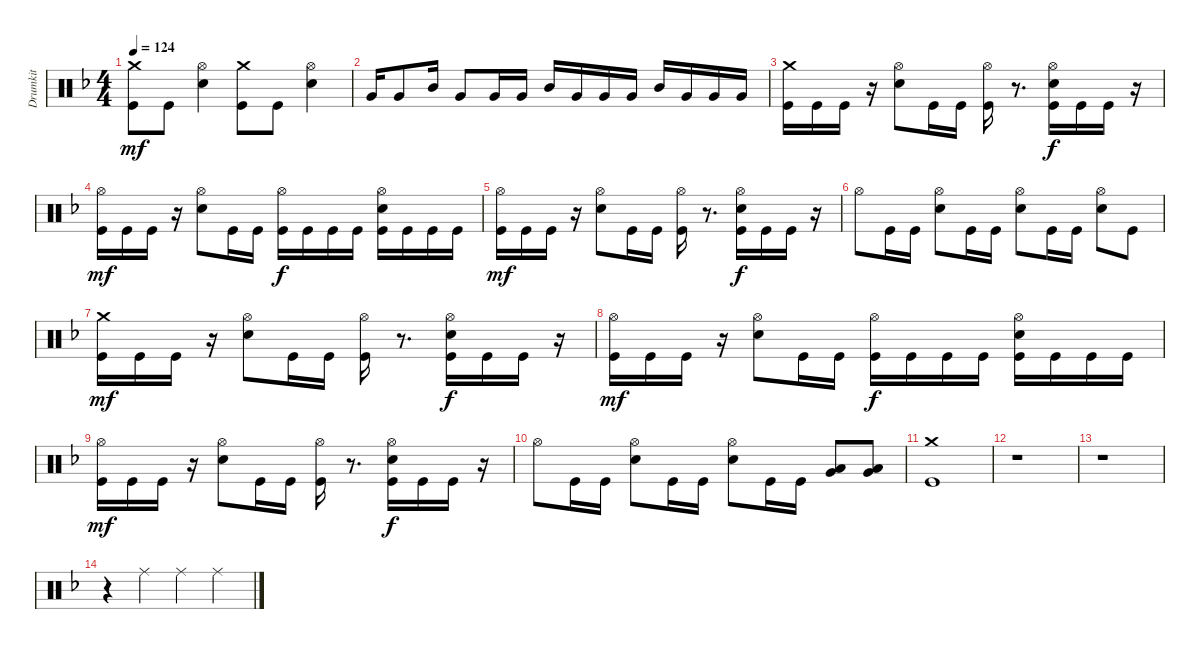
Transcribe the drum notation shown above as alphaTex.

\track ("Drumkit" "Drumkit") {instrument percussion}
\staff {score}
\articulation defaults
\ts (4 4)
\tempo 124
\clef neutral
\ks dminor
("Kick (hit)" "Crash medium (hit)").8{dy mf} "Kick (hit)".8 ("Snare (hit) 2" "Hi-Hat (open)").4 ("Kick (hit)" "Crash medium (hit)").8 "Kick (hit)".8 ("Snare (hit) 2" "Hi-Hat (open)").4 |
"Very Low Tom (hit)".16 "Very Low Tom (hit)".8 "Mid Tom (hit)".16 "Very Low Tom (hit)".8 "Very Low Tom (hit)".16 "Very Low Tom (hit)".16 "Mid Tom (hit)".16 "Very Low Tom (hit)".16 "Very Low Tom (hit)".16 "Very Low Tom (hit)".16 "Mid Tom (hit)".16 "Very Low Tom (hit)".16 "Very Low Tom (hit)".16 "Very Low Tom (hit)".16 |
("Kick (hit)" "Crash medium (hit)").16 "Kick (hit)".16 "Kick (hit)".16 r.16 ("Snare (hit) 2" "Hi-Hat (open)").8 "Kick (hit)".16 "Kick (hit)".16 ("Kick (hit)" "Hi-Hat (open)").16 r.8{d} ("Kick (hit)" "Hi-Hat (open)" "Snare (hit) 2").16{dy f} "Kick (hit)".16 "Kick (hit)".16 r.16 |
("Kick (hit)" "Hi-Hat (open)").16{dy mf} "Kick (hit)".16 "Kick (hit)".16 r.16 ("Snare (hit) 2" "Hi-Hat (open)").8 "Kick (hit)".16 "Kick (hit)".16 ("Kick (hit)" "Hi-Hat (open)").16{dy f} "Kick (hit)".16 "Kick (hit)".16 "Kick (hit)".16 ("Kick (hit)" "Hi-Hat (open)" "Snare (hit) 2").16 "Kick (hit)".16 "Kick (hit)".16 "Kick (hit)".16 |
("Kick (hit)" "Hi-Hat (open)").16{dy mf} "Kick (hit)".16 "Kick (hit)".16 r.16 ("Snare (hit) 2" "Hi-Hat (open)").8 "Kick (hit)".16 "Kick (hit)".16 ("Kick (hit)" "Hi-Hat (open)").16 r.8{d} ("Kick (hit)" "Hi-Hat (open)" "Snare (hit) 2").16{dy f} "Kick (hit)".16 "Kick (hit)".16 r.16 |
"Hi-Hat (open)".8 "Kick (hit)".16 "Kick (hit)".16 ("Snare (hit) 2" "Hi-Hat (open)").8 "Kick (hit)".16 "Kick (hit)".16 ("Snare (hit) 2" "Hi-Hat (open)").8 "Kick (hit)".16 "Kick (hit)".16 ("Snare (hit) 2" "Hi-Hat (open)").8 "Kick (hit)".8 |
("Kick (hit)" "Crash medium (hit)").16{dy mf} "Kick (hit)".16 "Kick (hit)".16 r.16 ("Snare (hit) 2" "Hi-Hat (open)").8 "Kick (hit)".16 "Kick (hit)".16 ("Kick (hit)" "Hi-Hat (open)").16 r.8{d} ("Kick (hit)" "Hi-Hat (open)" "Snare (hit) 2").16{dy f} "Kick (hit)".16 "Kick (hit)".16 r.16 |
("Kick (hit)" "Hi-Hat (open)").16{dy mf} "Kick (hit)".16 "Kick (hit)".16 r.16 ("Snare (hit) 2" "Hi-Hat (open)").8 "Kick (hit)".16 "Kick (hit)".16 ("Kick (hit)" "Hi-Hat (open)").16{dy f} "Kick (hit)".16 "Kick (hit)".16 "Kick (hit)".16 ("Kick (hit)" "Hi-Hat (open)" "Snare (hit) 2").16 "Kick (hit)".16 "Kick (hit)".16 "Kick (hit)".16 |
("Kick (hit)" "Hi-Hat (open)").16{dy mf} "Kick (hit)".16 "Kick (hit)".16 r.16 ("Snare (hit) 2" "Hi-Hat (open)").8 "Kick (hit)".16 "Kick (hit)".16 ("Kick (hit)" "Hi-Hat (open)").16 r.8{d} ("Kick (hit)" "Hi-Hat (open)" "Snare (hit) 2").16{dy f} "Kick (hit)".16 "Kick (hit)".16 r.16 |
"Hi-Hat (open)".8 "Kick (hit)".16 "Kick (hit)".16 ("Snare (hit) 2" "Hi-Hat (open)").8 "Kick (hit)".16 "Kick (hit)".16 ("Snare (hit) 2" "Hi-Hat (open)").8 "Kick (hit)".16 "Kick (hit)".16 ("Very Low Tom (hit)" "Low Tom (hit)").8 ("Very Low Tom (hit)" "Low Tom (hit)").8 |
("Kick (hit)" "Crash medium (hit)").1 |
r.1 |
r.1 |
r.4 "Ride (middle)".4 "Ride (middle)".4 "Ride (middle)".4
